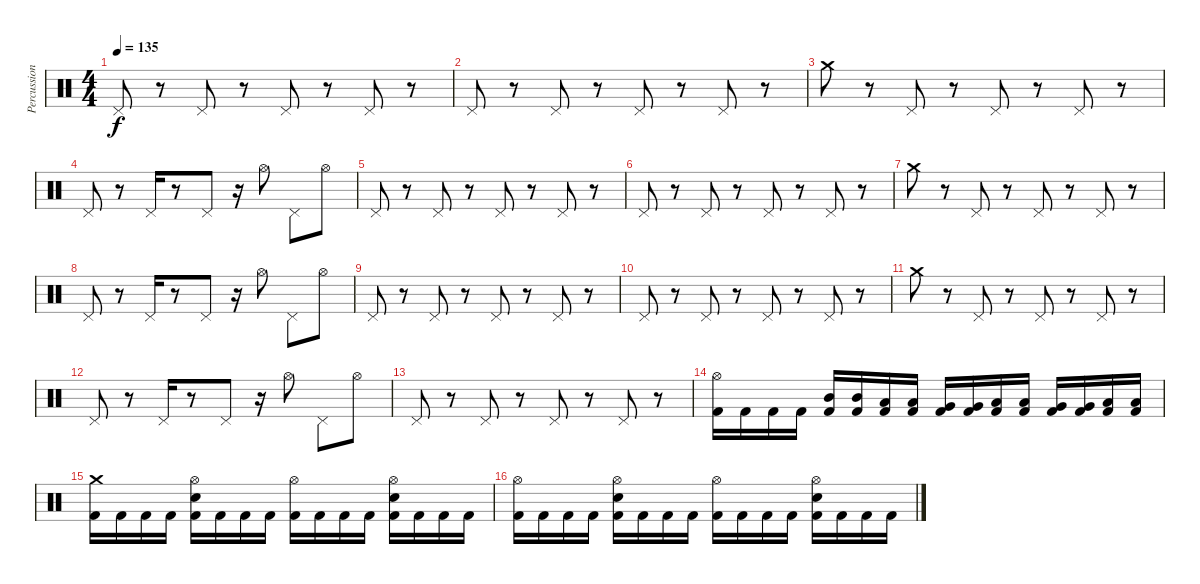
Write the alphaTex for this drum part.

\track ("Percussion" "Percussion") {instrument percussion}
\staff {score}
\articulation defaults
\ts (4 4)
\tempo 135
\clef neutral
\ks c "Pedal Hi-Hat (hit)".8{dy f}
r.8 "Pedal Hi-Hat (hit)".8 r.8 "Pedal Hi-Hat (hit)".8 r.8 "Pedal Hi-Hat (hit)".8 r.8 |
"Pedal Hi-Hat (hit)".8 r.8 "Pedal Hi-Hat (hit)".8 r.8 "Pedal Hi-Hat (hit)".8 r.8 "Pedal Hi-Hat (hit)".8 r.8 |
"Crash medium (hit)".8 r.8 "Pedal Hi-Hat (hit)".8 r.8 "Pedal Hi-Hat (hit)".8 r.8 "Pedal Hi-Hat (hit)".8 r.8 |
"Pedal Hi-Hat (hit)".8 r.8 "Pedal Hi-Hat (hit)".16 r.8 "Pedal Hi-Hat (hit)".8 r.16 "Hi-Hat (open)".8 "Pedal Hi-Hat (hit)".8 "Hi-Hat (open)".8 |
"Pedal Hi-Hat (hit)".8 r.8 "Pedal Hi-Hat (hit)".8 r.8 "Pedal Hi-Hat (hit)".8 r.8 "Pedal Hi-Hat (hit)".8 r.8 |
"Pedal Hi-Hat (hit)".8 r.8 "Pedal Hi-Hat (hit)".8 r.8 "Pedal Hi-Hat (hit)".8 r.8 "Pedal Hi-Hat (hit)".8 r.8 |
"Crash medium (hit)".8 r.8 "Pedal Hi-Hat (hit)".8 r.8 "Pedal Hi-Hat (hit)".8 r.8 "Pedal Hi-Hat (hit)".8 r.8 |
"Pedal Hi-Hat (hit)".8 r.8 "Pedal Hi-Hat (hit)".16 r.8 "Pedal Hi-Hat (hit)".8 r.16 "Hi-Hat (open)".8 "Pedal Hi-Hat (hit)".8 "Hi-Hat (open)".8 |
"Pedal Hi-Hat (hit)".8 r.8 "Pedal Hi-Hat (hit)".8 r.8 "Pedal Hi-Hat (hit)".8 r.8 "Pedal Hi-Hat (hit)".8 r.8 |
"Pedal Hi-Hat (hit)".8 r.8 "Pedal Hi-Hat (hit)".8 r.8 "Pedal Hi-Hat (hit)".8 r.8 "Pedal Hi-Hat (hit)".8 r.8 |
"Crash medium (hit)".8 r.8 "Pedal Hi-Hat (hit)".8 r.8 "Pedal Hi-Hat (hit)".8 r.8 "Pedal Hi-Hat (hit)".8 r.8 |
"Pedal Hi-Hat (hit)".8 r.8 "Pedal Hi-Hat (hit)".16 r.8 "Pedal Hi-Hat (hit)".8 r.16 "Hi-Hat (open)".8 "Pedal Hi-Hat (hit)".8 "Hi-Hat (open)".8 |
"Pedal Hi-Hat (hit)".8 r.8 "Pedal Hi-Hat (hit)".8 r.8 "Pedal Hi-Hat (hit)".8 r.8 "Pedal Hi-Hat (hit)".8 r.8 |
("Hi-Hat (open)" "Kick (hit) 2").16 "Kick (hit) 2".16 "Kick (hit) 2".16 "Kick (hit) 2".16 ("Mid Tom (hit)" "Kick (hit) 2").16 ("Mid Tom (hit)" "Kick (hit) 2").16 ("Low Tom (hit)" "Kick (hit) 2").16 ("Low Tom (hit)" "Kick (hit) 2").16 ("Very Low Tom (hit)" "Kick (hit) 2").16 ("Very Low Tom (hit)" "Kick (hit) 2").16 ("Low Tom (hit)" "Kick (hit) 2").16 ("Low Tom (hit)" "Kick (hit) 2").16 ("Very Low Tom (hit)" "Kick (hit) 2").16 ("Very Low Tom (hit)" "Kick (hit) 2").16 ("Low Floor Tom (hit)" "Kick (hit) 2").16 ("Low Floor Tom (hit)" "Kick (hit) 2").16 |
("Crash medium (hit)" "Kick (hit) 2").16 "Kick (hit) 2".16 "Kick (hit) 2".16 "Kick (hit) 2".16 ("Hi-Hat (open)" "Electric Snare (hit)" "Kick (hit) 2").16 "Kick (hit) 2".16 "Kick (hit) 2".16 "Kick (hit) 2".16 ("Hi-Hat (open)" "Kick (hit) 2").16 "Kick (hit) 2".16 "Kick (hit) 2".16 "Kick (hit) 2".16 ("Hi-Hat (open)" "Electric Snare (hit)" "Kick (hit) 2").16 "Kick (hit) 2".16 "Kick (hit) 2".16 "Kick (hit) 2".16 |
("Hi-Hat (open)" "Kick (hit) 2").16 "Kick (hit) 2".16 "Kick (hit) 2".16 "Kick (hit) 2".16 ("Hi-Hat (open)" "Electric Snare (hit)" "Kick (hit) 2").16 "Kick (hit) 2".16 "Kick (hit) 2".16 "Kick (hit) 2".16 ("Hi-Hat (open)" "Kick (hit) 2").16 "Kick (hit) 2".16 "Kick (hit) 2".16 "Kick (hit) 2".16 ("Hi-Hat (open)" "Electric Snare (hit)" "Kick (hit) 2").16 "Kick (hit) 2".16 "Kick (hit) 2".16 "Kick (hit) 2".16
